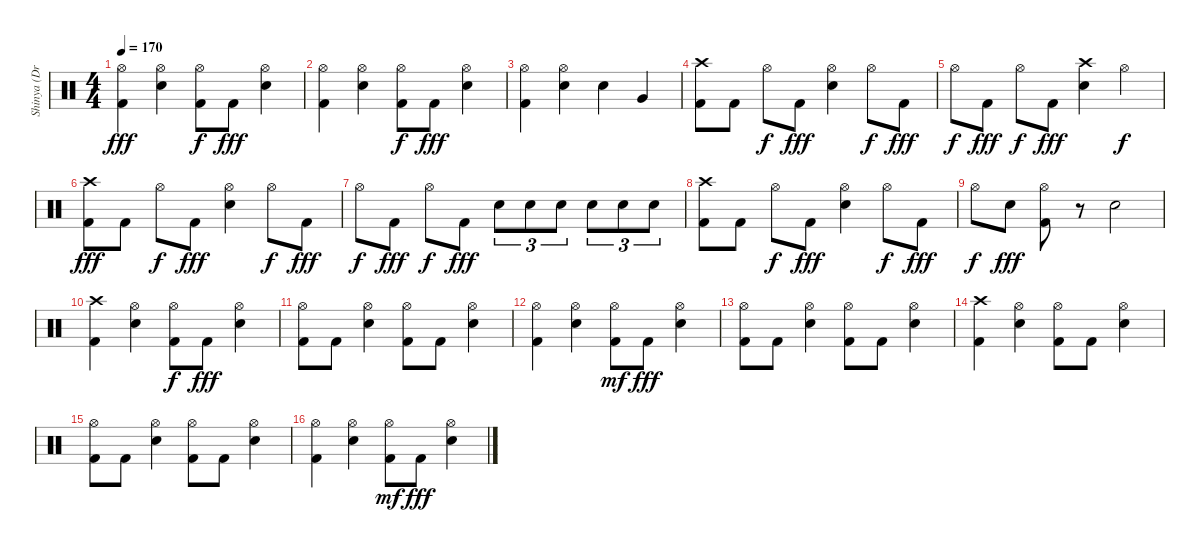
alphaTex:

\track ("Shinya (Drums)" "Shinya (Dr") {instrument percussion}
\staff {score}
\articulation defaults
\ts (4 4)
\tempo 170
\clef neutral
\ks c
("Hi-Hat (open)" "Kick (hit) 2").4{dy fff} ("Hi-Hat (open)" "Electric Snare (hit)").4 ("Hi-Hat (open)" "Kick (hit) 2").8{dy f} "Kick (hit) 2".8{dy fff} ("Hi-Hat (open)" "Electric Snare (hit)").4 |
("Hi-Hat (open)" "Kick (hit) 2").4 ("Hi-Hat (open)" "Electric Snare (hit)").4 ("Hi-Hat (open)" "Kick (hit) 2").8{dy f} "Kick (hit) 2".8{dy fff} ("Hi-Hat (open)" "Electric Snare (hit)").4 |
("Hi-Hat (open)" "Kick (hit) 2").4 ("Hi-Hat (open)" "Electric Snare (hit)").4 "Electric Snare (hit)".4 "Very Low Tom (hit)".4 |
("Crash high (hit)" "Kick (hit) 2").8 "Kick (hit) 2".8 "Hi-Hat (open)".8{dy f} "Kick (hit) 2".8{dy fff} ("Hi-Hat (open)" "Electric Snare (hit)").4 "Hi-Hat (open)".8{dy f} "Kick (hit) 2".8{dy fff} |
"Hi-Hat (open)".8{dy f} "Kick (hit) 2".8{dy fff} "Hi-Hat (open)".8{dy f} "Kick (hit) 2".8{dy fff} ("Crash high (hit)" "Electric Snare (hit)").4 "Hi-Hat (open)".4{dy f} |
("Crash high (hit)" "Kick (hit) 2").8{dy fff} "Kick (hit) 2".8 "Hi-Hat (open)".8{dy f} "Kick (hit) 2".8{dy fff} ("Hi-Hat (open)" "Electric Snare (hit)").4 "Hi-Hat (open)".8{dy f} "Kick (hit) 2".8{dy fff} |
"Hi-Hat (open)".8{dy f} "Kick (hit) 2".8{dy fff} "Hi-Hat (open)".8{dy f} "Kick (hit) 2".8{dy fff} "Electric Snare (hit)".8{tu (3 2)} "Electric Snare (hit)".8{tu (3 2)} "Electric Snare (hit)".8{tu (3 2)} "Electric Snare (hit)".8{tu (3 2)} "Electric Snare (hit)".8{tu (3 2)} "Electric Snare (hit)".8{tu (3 2)} |
("Crash high (hit)" "Kick (hit) 2").8 "Kick (hit) 2".8 "Hi-Hat (open)".8{dy f} "Kick (hit) 2".8{dy fff} ("Hi-Hat (open)" "Electric Snare (hit)").4 "Hi-Hat (open)".8{dy f} "Kick (hit) 2".8{dy fff} |
"Hi-Hat (open)".8{dy f} "Electric Snare (hit)".8{dy fff} ("Hi-Hat (open)" "Kick (hit) 2").8 r.8 "Electric Snare (hit)".2 |
("Crash high (hit)" "Kick (hit) 2").4 ("Hi-Hat (open)" "Electric Snare (hit)").4 ("Hi-Hat (open)" "Kick (hit) 2").8{dy f} "Kick (hit) 2".8{dy fff} ("Hi-Hat (open)" "Electric Snare (hit)").4 |
("Hi-Hat (open)" "Kick (hit) 2").8 "Kick (hit) 2".8 ("Hi-Hat (open)" "Electric Snare (hit)").4 ("Hi-Hat (open)" "Kick (hit) 2").8 "Kick (hit) 2".8 ("Hi-Hat (open)" "Electric Snare (hit)").4 |
("Hi-Hat (open)" "Kick (hit) 2").4 ("Hi-Hat (open)" "Electric Snare (hit)").4 ("Hi-Hat (open)" "Kick (hit) 2").8{dy mf} "Kick (hit) 2".8{dy fff} ("Hi-Hat (open)" "Electric Snare (hit)").4 |
("Hi-Hat (open)" "Kick (hit) 2").8 "Kick (hit) 2".8 ("Hi-Hat (open)" "Electric Snare (hit)").4 ("Hi-Hat (open)" "Kick (hit) 2").8 "Kick (hit) 2".8 ("Hi-Hat (open)" "Electric Snare (hit)").4 |
("Crash high (hit)" "Kick (hit) 2").4 ("Hi-Hat (open)" "Electric Snare (hit)").4 ("Hi-Hat (open)" "Kick (hit) 2").8 "Kick (hit) 2".8 ("Hi-Hat (open)" "Electric Snare (hit)").4 |
("Hi-Hat (open)" "Kick (hit) 2").8 "Kick (hit) 2".8 ("Hi-Hat (open)" "Electric Snare (hit)").4 ("Hi-Hat (open)" "Kick (hit) 2").8 "Kick (hit) 2".8 ("Hi-Hat (open)" "Electric Snare (hit)").4 |
("Hi-Hat (open)" "Kick (hit) 2").4 ("Hi-Hat (open)" "Electric Snare (hit)").4 ("Hi-Hat (open)" "Kick (hit) 2").8{dy mf} "Kick (hit) 2".8{dy fff} ("Hi-Hat (open)" "Electric Snare (hit)").4
